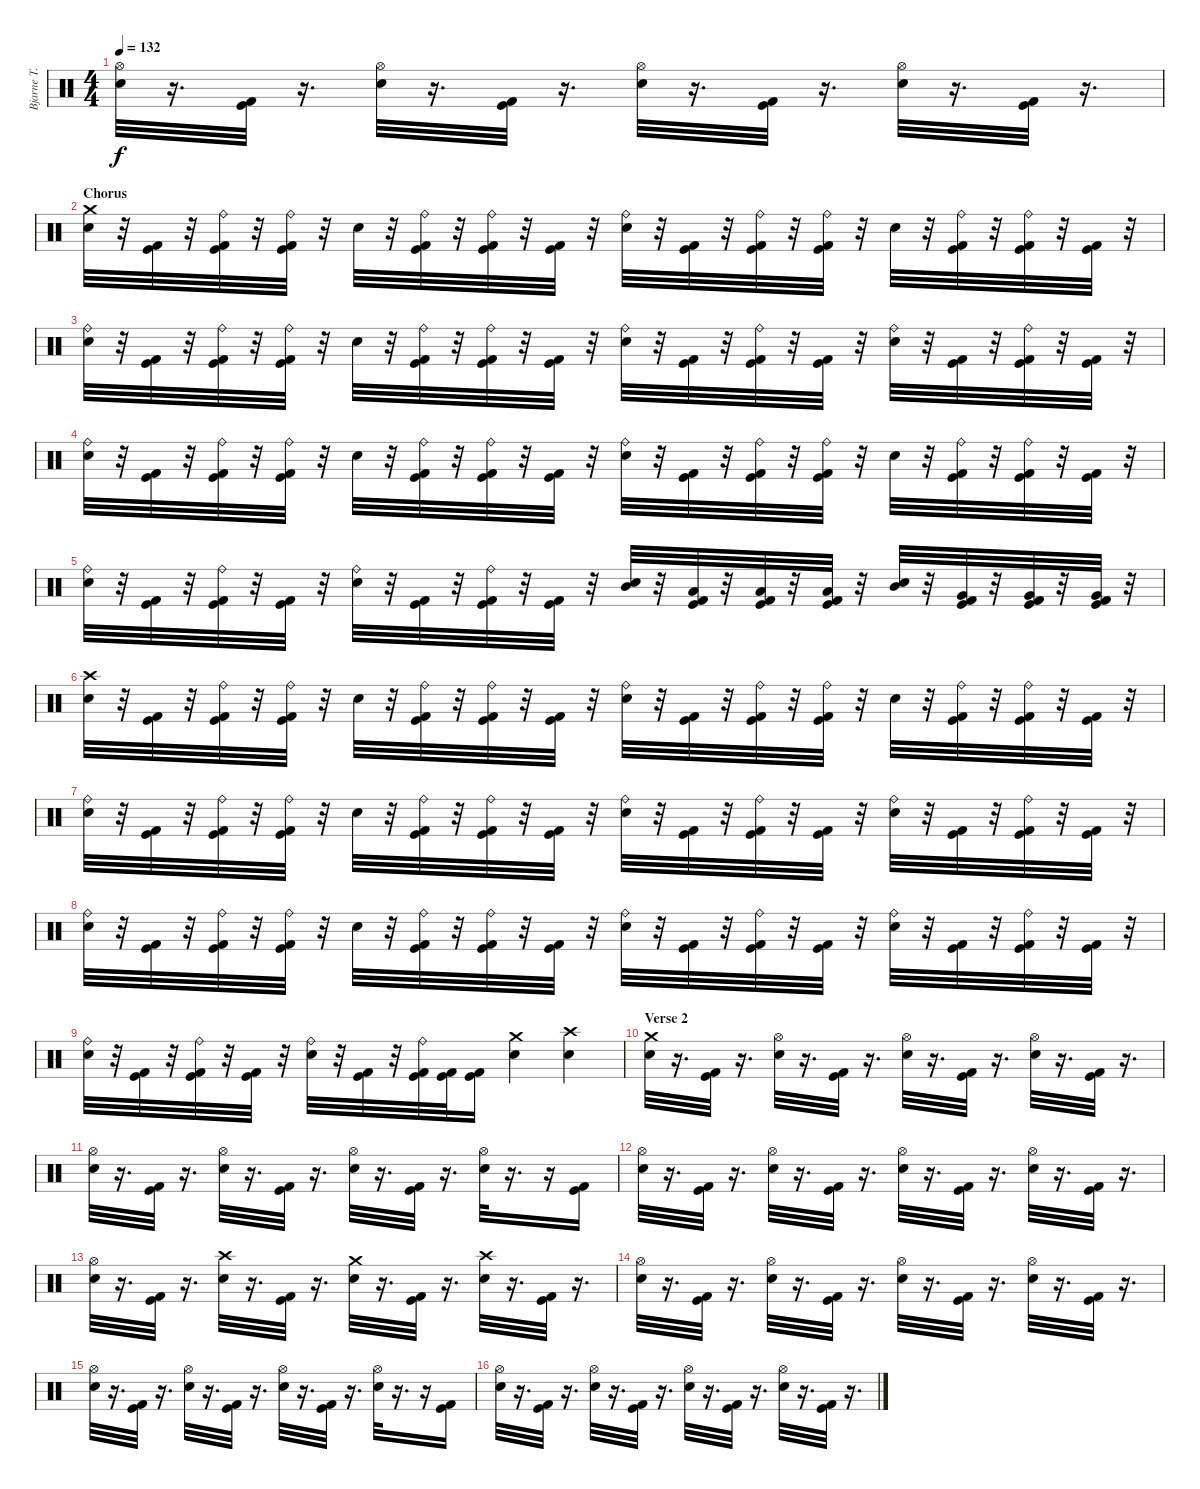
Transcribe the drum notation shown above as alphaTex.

\track ("Bjarne T. Holme" "Bjarne T. ") {instrument percussion}
\staff {score}
\articulation defaults
\ts (4 4)
\tempo 132
\clef neutral
\ks c
("Hi-Hat (open)" "Snare (hit) 2").32{dy f} r.16{d} ("Kick (hit)" "Kick (hit) 2").32 r.16{d} ("Hi-Hat (open)" "Snare (hit) 2").32 r.16{d} ("Kick (hit)" "Kick (hit) 2").32 r.16{d} ("Hi-Hat (open)" "Snare (hit) 2").32 r.16{d} ("Kick (hit)" "Kick (hit) 2").32 r.16{d} ("Hi-Hat (open)" "Snare (hit) 2").32 r.16{d} ("Kick (hit)" "Kick (hit) 2").32 r.16{d} |
\section ("" "Chorus")
("Crash medium (hit)" "Snare (hit) 2").32 r.32 ("Kick (hit)" "Kick (hit) 2").32 r.32 ("Ride (bell)" "Kick (hit)" "Kick (hit) 2").32 r.32 ("Ride (bell)" "Kick (hit)" "Kick (hit) 2").32 r.32 "Snare (hit) 2".32 r.32 ("Ride (bell)" "Kick (hit)" "Kick (hit) 2").32 r.32 ("Ride (bell)" "Kick (hit)" "Kick (hit) 2").32 r.32 ("Kick (hit)" "Kick (hit) 2").32 r.32 ("Ride (bell)" "Snare (hit) 2").32 r.32 ("Kick (hit)" "Kick (hit) 2").32 r.32 ("Ride (bell)" "Kick (hit)" "Kick (hit) 2").32 r.32 ("Ride (bell)" "Kick (hit)" "Kick (hit) 2").32 r.32 "Snare (hit) 2".32 r.32 ("Ride (bell)" "Kick (hit)" "Kick (hit) 2").32 r.32 ("Ride (bell)" "Kick (hit)" "Kick (hit) 2").32 r.32 ("Kick (hit)" "Kick (hit) 2").32 r.32 |
("Ride (bell)" "Snare (hit) 2").32 r.32 ("Kick (hit)" "Kick (hit) 2").32 r.32 ("Ride (bell)" "Kick (hit)" "Kick (hit) 2").32 r.32 ("Ride (bell)" "Kick (hit)" "Kick (hit) 2").32 r.32 "Snare (hit) 2".32 r.32 ("Ride (bell)" "Kick (hit)" "Kick (hit) 2").32 r.32 ("Ride (bell)" "Kick (hit)" "Kick (hit) 2").32 r.32 ("Kick (hit)" "Kick (hit) 2").32 r.32 ("Ride (bell)" "Snare (hit) 2").32 r.32 ("Kick (hit)" "Kick (hit) 2").32 r.32 ("Ride (bell)" "Kick (hit)" "Kick (hit) 2").32 r.32 ("Kick (hit)" "Kick (hit) 2").32 r.32 ("Ride (bell)" "Snare (hit) 2").32 r.32 ("Kick (hit)" "Kick (hit) 2").32 r.32 ("Ride (bell)" "Kick (hit)" "Kick (hit) 2").32 r.32 ("Kick (hit)" "Kick (hit) 2").32 r.32 |
("Ride (bell)" "Snare (hit) 2").32 r.32 ("Kick (hit)" "Kick (hit) 2").32 r.32 ("Ride (bell)" "Kick (hit)" "Kick (hit) 2").32 r.32 ("Ride (bell)" "Kick (hit)" "Kick (hit) 2").32 r.32 "Snare (hit) 2".32 r.32 ("Ride (bell)" "Kick (hit)" "Kick (hit) 2").32 r.32 ("Ride (bell)" "Kick (hit)" "Kick (hit) 2").32 r.32 ("Kick (hit)" "Kick (hit) 2").32 r.32 ("Ride (bell)" "Snare (hit) 2").32 r.32 ("Kick (hit)" "Kick (hit) 2").32 r.32 ("Ride (bell)" "Kick (hit)" "Kick (hit) 2").32 r.32 ("Ride (bell)" "Kick (hit)" "Kick (hit) 2").32 r.32 "Snare (hit) 2".32 r.32 ("Ride (bell)" "Kick (hit)" "Kick (hit) 2").32 r.32 ("Ride (bell)" "Kick (hit)" "Kick (hit) 2").32 r.32 ("Kick (hit)" "Kick (hit) 2").32 r.32 |
("Ride (bell)" "Snare (hit) 2").32 r.32 ("Kick (hit)" "Kick (hit) 2").32 r.32 ("Ride (bell)" "Kick (hit)" "Kick (hit) 2").32 r.32 ("Kick (hit)" "Kick (hit) 2").32 r.32 ("Ride (bell)" "Snare (hit) 2").32 r.32 ("Kick (hit)" "Kick (hit) 2").32 r.32 ("Ride (bell)" "Kick (hit)" "Kick (hit) 2").32 r.32 ("Kick (hit)" "Kick (hit) 2").32 r.32 ("Mid Tom (hit)" "Snare (hit) 2").32 r.32 ("Low Tom (hit)" "Kick (hit)" "Kick (hit) 2").32 r.32 ("Low Tom (hit)" "Kick (hit)" "Kick (hit) 2").32 r.32 ("Low Tom (hit)" "Kick (hit)" "Kick (hit) 2").32 r.32 ("Mid Tom (hit)" "Snare (hit) 2").32 r.32 ("Very Low Tom (hit)" "Kick (hit)" "Kick (hit) 2").32 r.32 ("Very Low Tom (hit)" "Kick (hit)" "Kick (hit) 2").32 r.32 ("Very Low Tom (hit)" "Kick (hit)" "Kick (hit) 2").32 r.32 |
("Crash high (hit)" "Snare (hit) 2").32 r.32 ("Kick (hit)" "Kick (hit) 2").32 r.32 ("Ride (bell)" "Kick (hit)" "Kick (hit) 2").32 r.32 ("Ride (bell)" "Kick (hit)" "Kick (hit) 2").32 r.32 "Snare (hit) 2".32 r.32 ("Ride (bell)" "Kick (hit)" "Kick (hit) 2").32 r.32 ("Ride (bell)" "Kick (hit)" "Kick (hit) 2").32 r.32 ("Kick (hit)" "Kick (hit) 2").32 r.32 ("Ride (bell)" "Snare (hit) 2").32 r.32 ("Kick (hit)" "Kick (hit) 2").32 r.32 ("Ride (bell)" "Kick (hit)" "Kick (hit) 2").32 r.32 ("Ride (bell)" "Kick (hit)" "Kick (hit) 2").32 r.32 "Snare (hit) 2".32 r.32 ("Ride (bell)" "Kick (hit)" "Kick (hit) 2").32 r.32 ("Ride (bell)" "Kick (hit)" "Kick (hit) 2").32 r.32 ("Kick (hit)" "Kick (hit) 2").32 r.32 |
("Ride (bell)" "Snare (hit) 2").32 r.32 ("Kick (hit)" "Kick (hit) 2").32 r.32 ("Ride (bell)" "Kick (hit)" "Kick (hit) 2").32 r.32 ("Ride (bell)" "Kick (hit)" "Kick (hit) 2").32 r.32 "Snare (hit) 2".32 r.32 ("Ride (bell)" "Kick (hit)" "Kick (hit) 2").32 r.32 ("Ride (bell)" "Kick (hit)" "Kick (hit) 2").32 r.32 ("Kick (hit)" "Kick (hit) 2").32 r.32 ("Ride (bell)" "Snare (hit) 2").32 r.32 ("Kick (hit)" "Kick (hit) 2").32 r.32 ("Ride (bell)" "Kick (hit)" "Kick (hit) 2").32 r.32 ("Kick (hit)" "Kick (hit) 2").32 r.32 ("Ride (bell)" "Snare (hit) 2").32 r.32 ("Kick (hit)" "Kick (hit) 2").32 r.32 ("Ride (bell)" "Kick (hit)" "Kick (hit) 2").32 r.32 ("Kick (hit)" "Kick (hit) 2").32 r.32 |
("Ride (bell)" "Snare (hit) 2").32 r.32 ("Kick (hit)" "Kick (hit) 2").32 r.32 ("Ride (bell)" "Kick (hit)" "Kick (hit) 2").32 r.32 ("Ride (bell)" "Kick (hit)" "Kick (hit) 2").32 r.32 "Snare (hit) 2".32 r.32 ("Ride (bell)" "Kick (hit)" "Kick (hit) 2").32 r.32 ("Ride (bell)" "Kick (hit)" "Kick (hit) 2").32 r.32 ("Kick (hit)" "Kick (hit) 2").32 r.32 ("Ride (bell)" "Snare (hit) 2").32 r.32 ("Kick (hit)" "Kick (hit) 2").32 r.32 ("Ride (bell)" "Kick (hit)" "Kick (hit) 2").32 r.32 ("Kick (hit)" "Kick (hit) 2").32 r.32 ("Ride (bell)" "Snare (hit) 2").32 r.32 ("Kick (hit)" "Kick (hit) 2").32 r.32 ("Ride (bell)" "Kick (hit)" "Kick (hit) 2").32 r.32 ("Kick (hit)" "Kick (hit) 2").32 r.32 |
("Ride (bell)" "Snare (hit) 2").32 r.32 ("Kick (hit)" "Kick (hit) 2").32 r.32 ("Ride (bell)" "Kick (hit)" "Kick (hit) 2").32 r.32 ("Kick (hit)" "Kick (hit) 2").32 r.32 ("Ride (bell)" "Snare (hit) 2").32 r.32 ("Kick (hit)" "Kick (hit) 2").32 r.32 ("Ride (bell)" "Kick (hit)" "Kick (hit) 2").32 ("Kick (hit)" "Kick (hit) 2").32 ("Kick (hit)" "Kick (hit) 2").16 ("Crash medium (hit)" "Snare (hit) 2").4 ("Crash high (hit)" "Snare (hit) 2").4 |
\section ("" "Verse 2")
("Crash medium (hit)" "Snare (hit) 2").32 r.16{d} ("Kick (hit)" "Kick (hit) 2").32 r.16{d} ("Hi-Hat (open)" "Snare (hit) 2").32 r.16{d} ("Kick (hit)" "Kick (hit) 2").32 r.16{d} ("Hi-Hat (open)" "Snare (hit) 2").32 r.16{d} ("Kick (hit)" "Kick (hit) 2").32 r.16{d} ("Hi-Hat (open)" "Snare (hit) 2").32 r.16{d} ("Kick (hit)" "Kick (hit) 2").32 r.16{d} |
("Hi-Hat (open)" "Snare (hit) 2").32 r.16{d} ("Kick (hit)" "Kick (hit) 2").32 r.16{d} ("Hi-Hat (open)" "Snare (hit) 2").32 r.16{d} ("Kick (hit)" "Kick (hit) 2").32 r.16{d} ("Hi-Hat (open)" "Snare (hit) 2").32 r.16{d} ("Kick (hit)" "Kick (hit) 2").32 r.16{d} ("Hi-Hat (open)" "Snare (hit) 2").32 r.16{d} r.16 ("Kick (hit)" "Kick (hit) 2").16 |
("Hi-Hat (open)" "Snare (hit) 2").32 r.16{d} ("Kick (hit)" "Kick (hit) 2").32 r.16{d} ("Hi-Hat (open)" "Snare (hit) 2").32 r.16{d} ("Kick (hit)" "Kick (hit) 2").32 r.16{d} ("Hi-Hat (open)" "Snare (hit) 2").32 r.16{d} ("Kick (hit)" "Kick (hit) 2").32 r.16{d} ("Hi-Hat (open)" "Snare (hit) 2").32 r.16{d} ("Kick (hit)" "Kick (hit) 2").32 r.16{d} |
("Hi-Hat (open)" "Snare (hit) 2").32 r.16{d} ("Kick (hit)" "Kick (hit) 2").32 r.16{d} ("Crash high (hit)" "Snare (hit) 2").32 r.16{d} ("Kick (hit)" "Kick (hit) 2").32 r.16{d} ("Crash medium (hit)" "Snare (hit) 2").32 r.16{d} ("Kick (hit)" "Kick (hit) 2").32 r.16{d} ("Crash high (hit)" "Snare (hit) 2").32 r.16{d} ("Kick (hit)" "Kick (hit) 2").32 r.16{d} |
("Hi-Hat (open)" "Snare (hit) 2").32 r.16{d} ("Kick (hit)" "Kick (hit) 2").32 r.16{d} ("Hi-Hat (open)" "Snare (hit) 2").32 r.16{d} ("Kick (hit)" "Kick (hit) 2").32 r.16{d} ("Hi-Hat (open)" "Snare (hit) 2").32 r.16{d} ("Kick (hit)" "Kick (hit) 2").32 r.16{d} ("Hi-Hat (open)" "Snare (hit) 2").32 r.16{d} ("Kick (hit)" "Kick (hit) 2").32 r.16{d} |
("Hi-Hat (open)" "Snare (hit) 2").32 r.16{d} ("Kick (hit)" "Kick (hit) 2").32 r.16{d} ("Hi-Hat (open)" "Snare (hit) 2").32 r.16{d} ("Kick (hit)" "Kick (hit) 2").32 r.16{d} ("Hi-Hat (open)" "Snare (hit) 2").32 r.16{d} ("Kick (hit)" "Kick (hit) 2").32 r.16{d} ("Hi-Hat (open)" "Snare (hit) 2").32 r.16{d} r.16 ("Kick (hit)" "Kick (hit) 2").16 |
("Hi-Hat (open)" "Snare (hit) 2").32 r.16{d} ("Kick (hit)" "Kick (hit) 2").32 r.16{d} ("Hi-Hat (open)" "Snare (hit) 2").32 r.16{d} ("Kick (hit)" "Kick (hit) 2").32 r.16{d} ("Hi-Hat (open)" "Snare (hit) 2").32 r.16{d} ("Kick (hit)" "Kick (hit) 2").32 r.16{d} ("Hi-Hat (open)" "Snare (hit) 2").32 r.16{d} ("Kick (hit)" "Kick (hit) 2").32 r.16{d}
